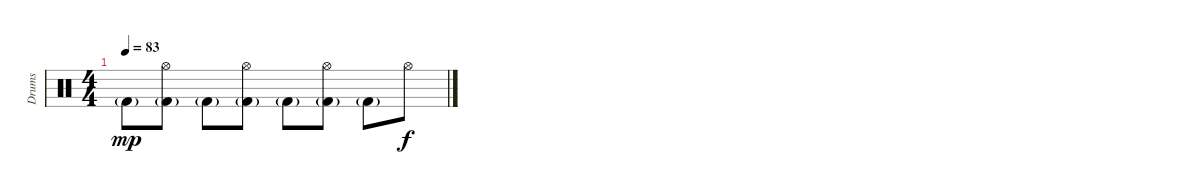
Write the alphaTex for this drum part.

\track ("Drums" "Drums") {instrument percussion}
\staff {score}
\articulation defaults
\ts (4 4)
\tempo 83
\clef neutral
\ks c "Kick (hit) 2"{g}.8{dy mp}
("Kick (hit) 2"{g} "Hi-Hat (open)").8 "Kick (hit) 2"{g}.8 ("Kick (hit) 2"{g} "Hi-Hat (open)").8 "Kick (hit) 2"{g}.8 ("Kick (hit) 2"{g} "Hi-Hat (open)").8 "Kick (hit) 2"{g}.8 "Hi-Hat (open)".8{dy f}
